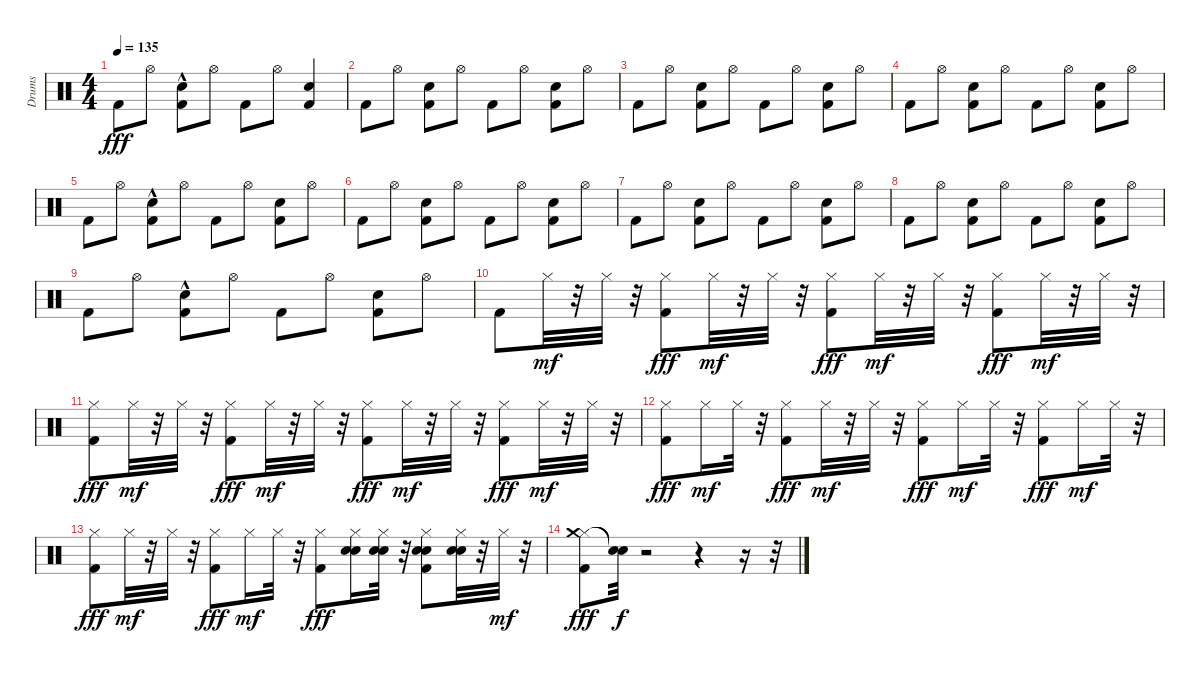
\track ("Drums" "Drums") {instrument percussion}
\staff {score}
\articulation defaults
\ts (4 4)
\tempo 135
\clef neutral
\ks c "Kick (hit) 2".8{dy fff} "Hi-Hat (open)".8
("Kick (hit) 2" "Snare (hit) 2"{hac}).8 "Hi-Hat (open)".8 "Kick (hit) 2".8 "Hi-Hat (open)".8 ("Kick (hit) 2" "Snare (hit) 2").4 |
"Kick (hit) 2".8 "Hi-Hat (open)".8 ("Kick (hit) 2" "Snare (hit) 2").8 "Hi-Hat (open)".8 "Kick (hit) 2".8 "Hi-Hat (open)".8 ("Kick (hit) 2" "Snare (hit) 2").8 "Hi-Hat (open)".8 |
"Kick (hit) 2".8 "Hi-Hat (open)".8 ("Kick (hit) 2" "Snare (hit) 2").8 "Hi-Hat (open)".8 "Kick (hit) 2".8 "Hi-Hat (open)".8 ("Kick (hit) 2" "Snare (hit) 2").8 "Hi-Hat (open)".8 |
"Kick (hit) 2".8 "Hi-Hat (open)".8 ("Kick (hit) 2" "Snare (hit) 2").8 "Hi-Hat (open)".8 "Kick (hit) 2".8 "Hi-Hat (open)".8 ("Kick (hit) 2" "Snare (hit) 2").8 "Hi-Hat (open)".8 |
"Kick (hit) 2".8 "Hi-Hat (open)".8 ("Kick (hit) 2" "Snare (hit) 2"{hac}).8 "Hi-Hat (open)".8 "Kick (hit) 2".8 "Hi-Hat (open)".8 ("Kick (hit) 2" "Snare (hit) 2").8 "Hi-Hat (open)".8 |
"Kick (hit) 2".8 "Hi-Hat (open)".8 ("Kick (hit) 2" "Snare (hit) 2").8 "Hi-Hat (open)".8 "Kick (hit) 2".8 "Hi-Hat (open)".8 ("Kick (hit) 2" "Snare (hit) 2").8 "Hi-Hat (open)".8 |
"Kick (hit) 2".8 "Hi-Hat (open)".8 ("Kick (hit) 2" "Snare (hit) 2").8 "Hi-Hat (open)".8 "Kick (hit) 2".8 "Hi-Hat (open)".8 ("Kick (hit) 2" "Snare (hit) 2").8 "Hi-Hat (open)".8 |
"Kick (hit) 2".8 "Hi-Hat (open)".8 ("Kick (hit) 2" "Snare (hit) 2").8 "Hi-Hat (open)".8 "Kick (hit) 2".8 "Hi-Hat (open)".8 ("Kick (hit) 2" "Snare (hit) 2").8 "Hi-Hat (open)".8 |
"Kick (hit) 2".8 "Hi-Hat (open)".8 ("Kick (hit) 2" "Snare (hit) 2"{hac}).8 "Hi-Hat (open)".8 "Kick (hit) 2".8 "Hi-Hat (open)".8 ("Kick (hit) 2" "Snare (hit) 2").8 "Hi-Hat (open)".8 |
"Kick (hit) 2".8 "Hi-Hat (closed)".32{dy mf} r.32 "Hi-Hat (closed)".32 r.32 ("Hi-Hat (closed)" "Kick (hit) 2").8{dy fff} "Hi-Hat (closed)".32{dy mf} r.32 "Hi-Hat (closed)".32 r.32 ("Hi-Hat (closed)" "Kick (hit) 2").8{dy fff} "Hi-Hat (closed)".32{dy mf} r.32 "Hi-Hat (closed)".32 r.32 ("Hi-Hat (closed)" "Kick (hit) 2").8{dy fff} "Hi-Hat (closed)".32{dy mf} r.32 "Hi-Hat (closed)".32 r.32 |
("Hi-Hat (closed)" "Kick (hit) 2").8{dy fff} "Hi-Hat (closed)".32{dy mf} r.32 "Hi-Hat (closed)".32 r.32 ("Hi-Hat (closed)" "Kick (hit) 2").8{dy fff} "Hi-Hat (closed)".32{dy mf} r.32 "Hi-Hat (closed)".32 r.32 ("Hi-Hat (closed)" "Kick (hit) 2").8{dy fff} "Hi-Hat (closed)".32{dy mf} r.32 "Hi-Hat (closed)".32 r.32 ("Hi-Hat (closed)" "Kick (hit) 2").8{dy fff} "Hi-Hat (closed)".32{dy mf} r.32 "Hi-Hat (closed)".32 r.32 |
("Hi-Hat (closed)" "Kick (hit) 2").8{dy fff} "Hi-Hat (closed)".16{dy mf} "Hi-Hat (closed)".32 r.32 ("Hi-Hat (closed)" "Kick (hit) 2").8{dy fff} "Hi-Hat (closed)".32{dy mf} r.32 "Hi-Hat (closed)".32 r.32 ("Hi-Hat (closed)" "Kick (hit) 2").8{dy fff} "Hi-Hat (closed)".16{dy mf} "Hi-Hat (closed)".32 r.32 ("Hi-Hat (closed)" "Kick (hit) 2").8{dy fff} "Hi-Hat (closed)".16{dy mf} "Hi-Hat (closed)".32 r.32 |
("Hi-Hat (closed)" "Kick (hit) 2").8{dy fff} "Hi-Hat (closed)".32{dy mf} r.32 "Hi-Hat (closed)".32 r.32 ("Hi-Hat (closed)" "Kick (hit) 2").8{dy fff} "Hi-Hat (closed)".16{dy mf} "Hi-Hat (closed)".32 r.32 ("Hi-Hat (closed)" "Kick (hit) 2").8{dy fff} ("Hi-Hat (closed)" "Snare (hit) 2" "Electric Snare (hit)").16 ("Hi-Hat (closed)" "Electric Snare (hit)" "Snare (hit) 2").32 r.32 ("Hi-Hat (closed)" "Kick (hit) 2" "Electric Snare (hit)" "Snare (hit) 2").8 ("Hi-Hat (closed)" "Electric Snare (hit)" "Snare (hit) 2").32 r.32 "Hi-Hat (closed)".32{dy mf} r.32 |
("Hi-Hat (closed)" "Crash medium (hit)" "Kick (hit) 2").8{dy fff} ("Snare (hit)"{t} "Snare (hit)"{t}).32{dy f} r.2 r.4 r.16 r.32
